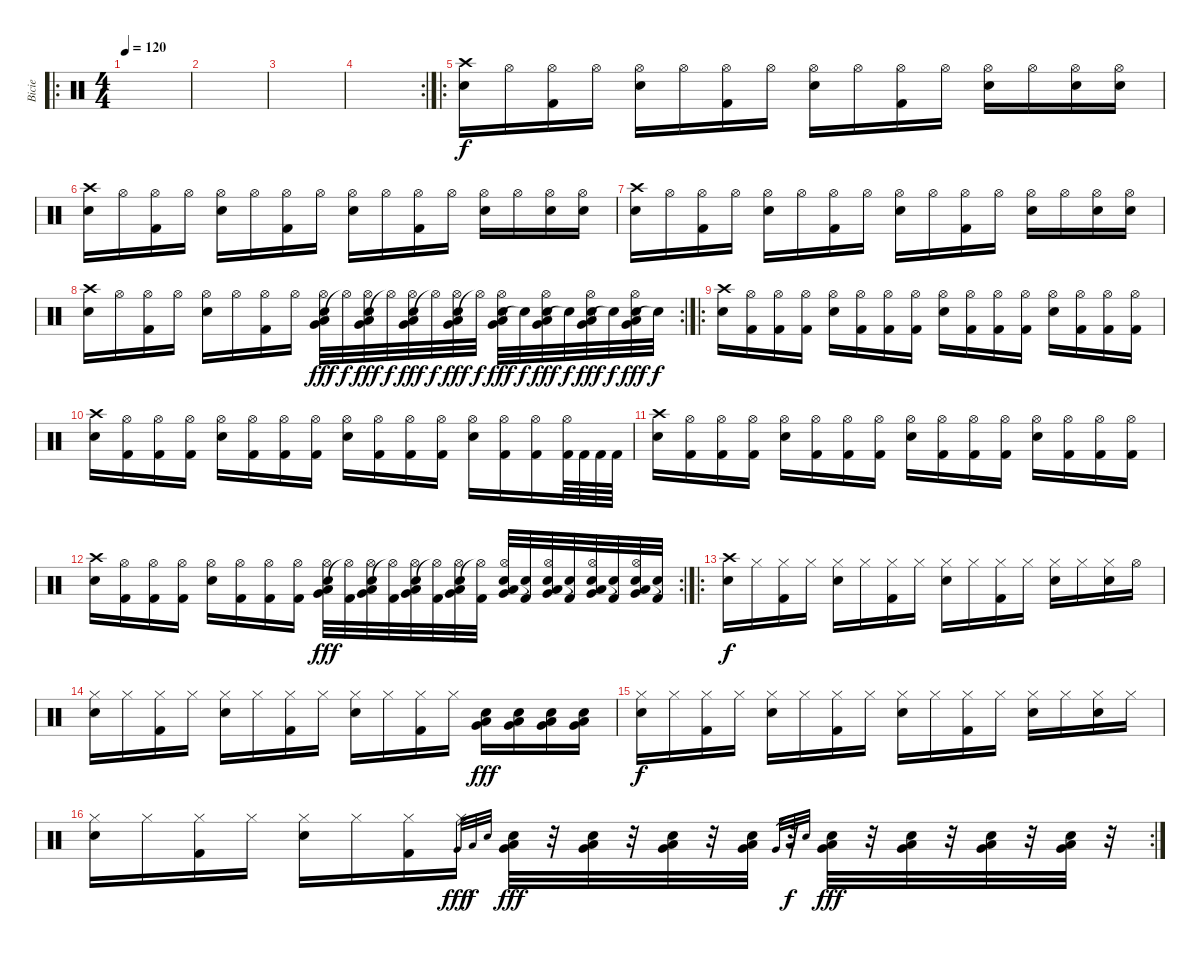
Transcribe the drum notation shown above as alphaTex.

\track ("Bicie" "Bicie") {instrument percussion}
\staff {score}
\articulation defaults
\ro
\ts (4 4)
\tempo 120
\clef neutral
\ks c
|
|
|
\rc 2
|
\ro
("Electric Snare (hit)" "Crash high (hit)").16 "Hi-Hat (open)".16 ("Kick (hit) 2" "Hi-Hat (open)").16 "Hi-Hat (open)".16 ("Electric Snare (hit)" "Hi-Hat (open)").16 "Hi-Hat (open)".16 ("Kick (hit) 2" "Hi-Hat (open)").16 "Hi-Hat (open)".16 ("Electric Snare (hit)" "Hi-Hat (open)").16 "Hi-Hat (open)".16 ("Kick (hit) 2" "Hi-Hat (open)").16 "Hi-Hat (open)".16 ("Electric Snare (hit)" "Hi-Hat (open)").16 "Hi-Hat (open)".16 ("Electric Snare (hit)" "Hi-Hat (open)").16 ("Electric Snare (hit)" "Hi-Hat (open)").16 |
("Electric Snare (hit)" "Crash high (hit)").16 "Hi-Hat (open)".16 ("Kick (hit) 2" "Hi-Hat (open)").16 "Hi-Hat (open)".16 ("Electric Snare (hit)" "Hi-Hat (open)").16 "Hi-Hat (open)".16 ("Kick (hit) 2" "Hi-Hat (open)").16 "Hi-Hat (open)".16 ("Electric Snare (hit)" "Hi-Hat (open)").16 "Hi-Hat (open)".16 ("Kick (hit) 2" "Hi-Hat (open)").16 "Hi-Hat (open)".16 ("Electric Snare (hit)" "Hi-Hat (open)").16 "Hi-Hat (open)".16 ("Electric Snare (hit)" "Hi-Hat (open)").16 ("Electric Snare (hit)" "Hi-Hat (open)").16 |
("Electric Snare (hit)" "Crash high (hit)").16 "Hi-Hat (open)".16 ("Kick (hit) 2" "Hi-Hat (open)").16 "Hi-Hat (open)".16 ("Electric Snare (hit)" "Hi-Hat (open)").16 "Hi-Hat (open)".16 ("Kick (hit) 2" "Hi-Hat (open)").16 "Hi-Hat (open)".16 ("Electric Snare (hit)" "Hi-Hat (open)").16 "Hi-Hat (open)".16 ("Kick (hit) 2" "Hi-Hat (open)").16 "Hi-Hat (open)".16 ("Electric Snare (hit)" "Hi-Hat (open)").16 "Hi-Hat (open)".16 ("Electric Snare (hit)" "Hi-Hat (open)").16 ("Electric Snare (hit)" "Hi-Hat (open)").16 |
\rc 2
("Electric Snare (hit)" "Crash high (hit)").16 "Hi-Hat (open)".16 ("Kick (hit) 2" "Hi-Hat (open)").16 "Hi-Hat (open)".16 ("Electric Snare (hit)" "Hi-Hat (open)").16 "Hi-Hat (open)".16 ("Kick (hit) 2" "Hi-Hat (open)").16 "Hi-Hat (open)".16 ("Very Low Tom (hit)" "Low Floor Tom (hit)" "Electric Snare (hit)" "Hi-Hat (open)").32{dy fff} "Hi-Hat (open)"{t}.32{dy f} ("Very Low Tom (hit)" "Low Floor Tom (hit)" "Electric Snare (hit)" "Hi-Hat (open)").32{dy fff} "Hi-Hat (open)"{t}.32{dy f} ("Very Low Tom (hit)" "Low Floor Tom (hit)" "Electric Snare (hit)" "Hi-Hat (open)").32{dy fff} "Hi-Hat (open)"{t}.32{dy f} ("Very Low Tom (hit)" "Low Floor Tom (hit)" "Electric Snare (hit)" "Hi-Hat (open)").32{dy fff} "Hi-Hat (open)"{t}.32{dy f} ("Very Low Tom (hit)" "Low Floor Tom (hit)" "Electric Snare (hit)" "Hi-Hat (open)").32{dy fff} "Snare (hit)"{t}.32{dy f} ("Very Low Tom (hit)" "Low Floor Tom (hit)" "Electric Snare (hit)" "Hi-Hat (open)").32{dy fff} "Snare (hit)"{t}.32{dy f} ("Very Low Tom (hit)" "Low Floor Tom (hit)" "Electric Snare (hit)" "Hi-Hat (open)").32{dy fff} "Snare (hit)"{t}.32{dy f} ("Very Low Tom (hit)" "Low Floor Tom (hit)" "Electric Snare (hit)" "Hi-Hat (open)").32{dy fff} "Snare (hit)"{t}.32{dy f} |
\ro
("Electric Snare (hit)" "Crash high (hit)").16 ("Kick (hit) 2" "Hi-Hat (open)").16 ("Kick (hit) 2" "Hi-Hat (open)").16 ("Kick (hit) 2" "Hi-Hat (open)").16 ("Electric Snare (hit)" "Hi-Hat (open)").16 ("Kick (hit) 2" "Hi-Hat (open)").16 ("Kick (hit) 2" "Hi-Hat (open)").16 ("Kick (hit) 2" "Hi-Hat (open)").16 ("Electric Snare (hit)" "Hi-Hat (open)").16 ("Kick (hit) 2" "Hi-Hat (open)").16 ("Kick (hit) 2" "Hi-Hat (open)").16 ("Kick (hit) 2" "Hi-Hat (open)").16 ("Electric Snare (hit)" "Hi-Hat (open)").16 ("Kick (hit) 2" "Hi-Hat (open)").16 ("Kick (hit) 2" "Hi-Hat (open)").16 ("Kick (hit) 2" "Hi-Hat (open)").16 |
("Electric Snare (hit)" "Crash high (hit)").16 ("Kick (hit) 2" "Hi-Hat (open)").16 ("Kick (hit) 2" "Hi-Hat (open)").16 ("Kick (hit) 2" "Hi-Hat (open)").16 ("Electric Snare (hit)" "Hi-Hat (open)").16 ("Kick (hit) 2" "Hi-Hat (open)").16 ("Kick (hit) 2" "Hi-Hat (open)").16 ("Kick (hit) 2" "Hi-Hat (open)").16 ("Electric Snare (hit)" "Hi-Hat (open)").16 ("Kick (hit) 2" "Hi-Hat (open)").16 ("Kick (hit) 2" "Hi-Hat (open)").16 ("Kick (hit) 2" "Hi-Hat (open)").16 ("Electric Snare (hit)" "Hi-Hat (open)").16 ("Kick (hit) 2" "Hi-Hat (open)").16 ("Kick (hit) 2" "Hi-Hat (open)").16 ("Kick (hit) 2" "Hi-Hat (open)").64 "Kick (hit) 2".64 "Kick (hit) 2".64 "Kick (hit) 2".64 |
("Electric Snare (hit)" "Crash high (hit)").16 ("Kick (hit) 2" "Hi-Hat (open)").16 ("Kick (hit) 2" "Hi-Hat (open)").16 ("Kick (hit) 2" "Hi-Hat (open)").16 ("Electric Snare (hit)" "Hi-Hat (open)").16 ("Kick (hit) 2" "Hi-Hat (open)").16 ("Kick (hit) 2" "Hi-Hat (open)").16 ("Kick (hit) 2" "Hi-Hat (open)").16 ("Electric Snare (hit)" "Hi-Hat (open)").16 ("Kick (hit) 2" "Hi-Hat (open)").16 ("Kick (hit) 2" "Hi-Hat (open)").16 ("Kick (hit) 2" "Hi-Hat (open)").16 ("Electric Snare (hit)" "Hi-Hat (open)").16 ("Kick (hit) 2" "Hi-Hat (open)").16 ("Kick (hit) 2" "Hi-Hat (open)").16 ("Kick (hit) 2" "Hi-Hat (open)").16 |
\rc 2
("Electric Snare (hit)" "Crash high (hit)").16 ("Kick (hit) 2" "Hi-Hat (open)").16 ("Kick (hit) 2" "Hi-Hat (open)").16 ("Kick (hit) 2" "Hi-Hat (open)").16 ("Electric Snare (hit)" "Hi-Hat (open)").16 ("Kick (hit) 2" "Hi-Hat (open)").16 ("Kick (hit) 2" "Hi-Hat (open)").16 ("Kick (hit) 2" "Hi-Hat (open)").16 ("Very Low Tom (hit)" "Low Floor Tom (hit)" "Electric Snare (hit)" "Hi-Hat (open)").32{dy fff} ("Kick (hit) 2" "Hi-Hat (open)"{t}).32 ("Very Low Tom (hit)" "Low Floor Tom (hit)" "Electric Snare (hit)" "Hi-Hat (open)").32 ("Kick (hit) 2" "Hi-Hat (open)"{t}).32 ("Very Low Tom (hit)" "Low Floor Tom (hit)" "Electric Snare (hit)" "Hi-Hat (open)").32 ("Kick (hit) 2" "Hi-Hat (open)"{t}).32 ("Very Low Tom (hit)" "Low Floor Tom (hit)" "Electric Snare (hit)" "Hi-Hat (open)").32 ("Kick (hit) 2" "Hi-Hat (open)"{t}).32 ("Very Low Tom (hit)" "Low Floor Tom (hit)" "Electric Snare (hit)" "Hi-Hat (open)").32 ("Kick (hit) 2" "Snare (hit)"{t}).32 ("Very Low Tom (hit)" "Low Floor Tom (hit)" "Electric Snare (hit)" "Hi-Hat (open)").32 ("Kick (hit) 2" "Snare (hit)"{t}).32 ("Very Low Tom (hit)" "Low Floor Tom (hit)" "Electric Snare (hit)" "Hi-Hat (open)").32 ("Kick (hit) 2" "Snare (hit)"{t}).32 ("Very Low Tom (hit)" "Low Floor Tom (hit)" "Electric Snare (hit)" "Hi-Hat (open)").32 ("Kick (hit) 2" "Snare (hit)"{t}).32 |
\ro
("Electric Snare (hit)" "Crash high (hit)").16{dy f} "Hi-Hat (closed)".16 ("Kick (hit) 2" "Hi-Hat (closed)").16 "Hi-Hat (closed)".16 ("Electric Snare (hit)" "Hi-Hat (closed)").16 "Hi-Hat (closed)".16 ("Kick (hit) 2" "Hi-Hat (closed)").16 "Hi-Hat (closed)".16 ("Electric Snare (hit)" "Hi-Hat (closed)").16 "Hi-Hat (closed)".16 ("Kick (hit) 2" "Hi-Hat (closed)").16 "Hi-Hat (closed)".16 ("Electric Snare (hit)" "Hi-Hat (closed)").16 "Hi-Hat (closed)".16 ("Electric Snare (hit)" "Hi-Hat (closed)").16 "Hi-Hat (open)".16 |
("Electric Snare (hit)" "Hi-Hat (closed)").16 "Hi-Hat (closed)".16 ("Kick (hit) 2" "Hi-Hat (closed)").16 "Hi-Hat (closed)".16 ("Electric Snare (hit)" "Hi-Hat (closed)").16 "Hi-Hat (closed)".16 ("Kick (hit) 2" "Hi-Hat (closed)").16 "Hi-Hat (closed)".16 ("Electric Snare (hit)" "Hi-Hat (closed)").16 "Hi-Hat (closed)".16 ("Kick (hit) 2" "Hi-Hat (closed)").16 "Hi-Hat (closed)".16 ("Very Low Tom (hit)" "Electric Snare (hit)" "Low Floor Tom (hit)").16{dy fff} ("Very Low Tom (hit)" "Electric Snare (hit)" "Low Floor Tom (hit)").16 ("Very Low Tom (hit)" "Electric Snare (hit)" "Low Floor Tom (hit)").16 ("Very Low Tom (hit)" "Electric Snare (hit)" "Low Floor Tom (hit)").16 |
("Electric Snare (hit)" "Hi-Hat (closed)").16{dy f} "Hi-Hat (closed)".16 ("Kick (hit) 2" "Hi-Hat (closed)").16 "Hi-Hat (closed)".16 ("Electric Snare (hit)" "Hi-Hat (closed)").16 "Hi-Hat (closed)".16 ("Kick (hit) 2" "Hi-Hat (closed)").16 "Hi-Hat (closed)".16 ("Electric Snare (hit)" "Hi-Hat (closed)").16 "Hi-Hat (closed)".16 ("Kick (hit) 2" "Hi-Hat (closed)").16 "Hi-Hat (closed)".16 ("Electric Snare (hit)" "Hi-Hat (closed)").16 "Hi-Hat (closed)".16 ("Electric Snare (hit)" "Hi-Hat (closed)").16 "Hi-Hat (closed)".16 |
\rc 2
("Electric Snare (hit)" "Hi-Hat (closed)").16 "Hi-Hat (closed)".16 ("Kick (hit) 2" "Hi-Hat (closed)").16 "Hi-Hat (closed)".16 ("Electric Snare (hit)" "Hi-Hat (closed)").16 "Hi-Hat (closed)".16 ("Kick (hit) 2" "Hi-Hat (closed)").16 "Hi-Hat (closed)".16 "Very Low Tom (hit)".32{gr dy fff} "Low Floor Tom (hit)".32{gr dy f} "Electric Snare (hit)".32{gr} ("Very Low Tom (hit)" "Low Floor Tom (hit)" "Electric Snare (hit)").32{dy fff} r.32 ("Very Low Tom (hit)" "Low Floor Tom (hit)" "Electric Snare (hit)").32 r.32 ("Very Low Tom (hit)" "Low Floor Tom (hit)" "Electric Snare (hit)").32 r.32 ("Very Low Tom (hit)" "Low Floor Tom (hit)" "Electric Snare (hit)").32 r.32 "Very Low Tom (hit)".32{gr} "Low Floor Tom (hit)".32{gr dy f} "Electric Snare (hit)".32{gr} ("Very Low Tom (hit)" "Low Floor Tom (hit)" "Electric Snare (hit)").32{dy fff} r.32 ("Very Low Tom (hit)" "Low Floor Tom (hit)" "Electric Snare (hit)").32 r.32 ("Very Low Tom (hit)" "Low Floor Tom (hit)" "Electric Snare (hit)").32 r.32 ("Very Low Tom (hit)" "Low Floor Tom (hit)" "Electric Snare (hit)").32 r.32
